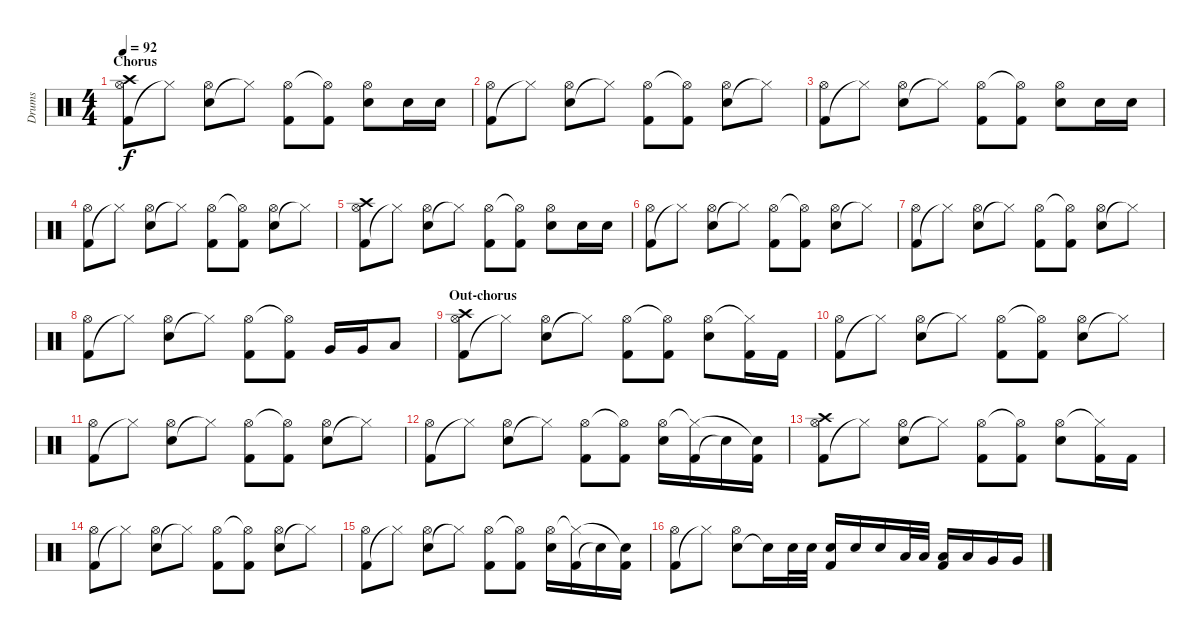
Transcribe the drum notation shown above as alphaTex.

\track ("Drums" "Drums") {instrument percussion}
\staff {score}
\articulation defaults
\ts (4 4)
\section ("" "Chorus")
\tempo 92
\clef neutral
\ks c
("Kick (hit) 2" "Hi-Hat (open)" "Crash high (hit)").8{dy f} "Hi-Hat (closed)"{t}.8 ("Electric Snare (hit)" "Hi-Hat (open)").8 "Hi-Hat (closed)"{t}.8 ("Kick (hit) 2" "Hi-Hat (open)").8 ("Kick (hit) 2" "Hi-Hat (open)"{t}).8 ("Electric Snare (hit)" "Hi-Hat (open)").8 "Electric Snare (hit)".16 "Electric Snare (hit)".16 |
("Kick (hit) 2" "Hi-Hat (open)").8 "Hi-Hat (closed)"{t}.8 ("Electric Snare (hit)" "Hi-Hat (open)").8 "Hi-Hat (closed)"{t}.8 ("Kick (hit) 2" "Hi-Hat (open)").8 ("Kick (hit) 2" "Hi-Hat (open)"{t}).8 ("Electric Snare (hit)" "Hi-Hat (open)").8 "Hi-Hat (closed)"{t}.8 |
("Kick (hit) 2" "Hi-Hat (open)").8 "Hi-Hat (closed)"{t}.8 ("Electric Snare (hit)" "Hi-Hat (open)").8 "Hi-Hat (closed)"{t}.8 ("Kick (hit) 2" "Hi-Hat (open)").8 ("Kick (hit) 2" "Hi-Hat (open)"{t}).8 ("Electric Snare (hit)" "Hi-Hat (open)").8 "Electric Snare (hit)".16 "Electric Snare (hit)".16 |
("Kick (hit) 2" "Hi-Hat (open)").8 "Hi-Hat (closed)"{t}.8 ("Electric Snare (hit)" "Hi-Hat (open)").8 "Hi-Hat (closed)"{t}.8 ("Kick (hit) 2" "Hi-Hat (open)").8 ("Kick (hit) 2" "Hi-Hat (open)"{t}).8 ("Electric Snare (hit)" "Hi-Hat (open)").8 "Hi-Hat (closed)"{t}.8 |
("Kick (hit) 2" "Hi-Hat (open)" "Crash high (hit)").8 "Hi-Hat (closed)"{t}.8 ("Electric Snare (hit)" "Hi-Hat (open)").8 "Hi-Hat (closed)"{t}.8 ("Kick (hit) 2" "Hi-Hat (open)").8 ("Kick (hit) 2" "Hi-Hat (open)"{t}).8 ("Electric Snare (hit)" "Hi-Hat (open)").8 "Electric Snare (hit)".16 "Electric Snare (hit)".16 |
("Kick (hit) 2" "Hi-Hat (open)").8 "Hi-Hat (closed)"{t}.8 ("Electric Snare (hit)" "Hi-Hat (open)").8 "Hi-Hat (closed)"{t}.8 ("Kick (hit) 2" "Hi-Hat (open)").8 ("Kick (hit) 2" "Hi-Hat (open)"{t}).8 ("Electric Snare (hit)" "Hi-Hat (open)").8 "Hi-Hat (closed)"{t}.8 |
("Kick (hit) 2" "Hi-Hat (open)").8 "Hi-Hat (closed)"{t}.8 ("Electric Snare (hit)" "Hi-Hat (open)").8 "Hi-Hat (closed)"{t}.8 ("Kick (hit) 2" "Hi-Hat (open)").8 ("Kick (hit) 2" "Hi-Hat (open)"{t}).8 ("Electric Snare (hit)" "Hi-Hat (open)").8 "Hi-Hat (closed)"{t}.8 |
("Kick (hit) 2" "Hi-Hat (open)").8 "Hi-Hat (closed)"{t}.8 ("Electric Snare (hit)" "Hi-Hat (open)").8 "Hi-Hat (closed)"{t}.8 ("Kick (hit) 2" "Hi-Hat (open)").8 ("Kick (hit) 2" "Hi-Hat (open)"{t}).8 "Very Low Tom (hit)".16 "Very Low Tom (hit)".16 "Low Tom (hit)".8 |
\section ("" "Out-chorus")
("Kick (hit) 2" "Hi-Hat (open)" "Crash high (hit)").8 "Hi-Hat (closed)"{t}.8 ("Electric Snare (hit)" "Hi-Hat (open)").8 "Hi-Hat (closed)"{t}.8 ("Kick (hit) 2" "Hi-Hat (open)").8 ("Kick (hit) 2" "Hi-Hat (open)"{t}).8 ("Electric Snare (hit)" "Hi-Hat (open)").8 ("Kick (hit) 2" "Hi-Hat (closed)"{t}).16 "Kick (hit) 2".16 |
("Kick (hit) 2" "Hi-Hat (open)").8 "Hi-Hat (closed)"{t}.8 ("Electric Snare (hit)" "Hi-Hat (open)").8 "Hi-Hat (closed)"{t}.8 ("Kick (hit) 2" "Hi-Hat (open)").8 ("Kick (hit) 2" "Hi-Hat (open)"{t}).8 ("Electric Snare (hit)" "Hi-Hat (open)").8 "Hi-Hat (closed)"{t}.8 |
("Kick (hit) 2" "Hi-Hat (open)").8 "Hi-Hat (closed)"{t}.8 ("Electric Snare (hit)" "Hi-Hat (open)").8 "Hi-Hat (closed)"{t}.8 ("Kick (hit) 2" "Hi-Hat (open)").8 ("Kick (hit) 2" "Hi-Hat (open)"{t}).8 ("Electric Snare (hit)" "Hi-Hat (open)").8 "Hi-Hat (closed)"{t}.8 |
("Kick (hit) 2" "Hi-Hat (open)").8 "Hi-Hat (closed)"{t}.8 ("Electric Snare (hit)" "Hi-Hat (open)").8 "Hi-Hat (closed)"{t}.8 ("Kick (hit) 2" "Hi-Hat (open)").8 ("Kick (hit) 2" "Hi-Hat (open)"{t}).8 ("Electric Snare (hit)" "Hi-Hat (open)").16 ("Kick (hit) 2" "Hi-Hat (closed)"{t}).16 "Snare (hit)"{t}.16 ("Kick (hit) 2" "Snare (hit)"{t}).16 |
("Kick (hit) 2" "Hi-Hat (open)" "Crash high (hit)").8 "Hi-Hat (closed)"{t}.8 ("Electric Snare (hit)" "Hi-Hat (open)").8 "Hi-Hat (closed)"{t}.8 ("Kick (hit) 2" "Hi-Hat (open)").8 ("Kick (hit) 2" "Hi-Hat (open)"{t}).8 ("Electric Snare (hit)" "Hi-Hat (open)").8 ("Kick (hit) 2" "Hi-Hat (closed)"{t}).16 "Kick (hit) 2".16 |
("Kick (hit) 2" "Hi-Hat (open)").8 "Hi-Hat (closed)"{t}.8 ("Electric Snare (hit)" "Hi-Hat (open)").8 "Hi-Hat (closed)"{t}.8 ("Kick (hit) 2" "Hi-Hat (open)").8 ("Kick (hit) 2" "Hi-Hat (open)"{t}).8 ("Electric Snare (hit)" "Hi-Hat (open)").8 "Hi-Hat (closed)"{t}.8 |
("Kick (hit) 2" "Hi-Hat (open)").8 "Hi-Hat (closed)"{t}.8 ("Electric Snare (hit)" "Hi-Hat (open)").8 "Hi-Hat (closed)"{t}.8 ("Kick (hit) 2" "Hi-Hat (open)").8 ("Kick (hit) 2" "Hi-Hat (open)"{t}).8 ("Electric Snare (hit)" "Hi-Hat (open)").16 ("Kick (hit) 2" "Hi-Hat (closed)"{t}).16 "Snare (hit)"{t}.16 ("Kick (hit) 2" "Snare (hit)"{t}).16 |
("Kick (hit) 2" "Hi-Hat (open)").8 "Hi-Hat (closed)"{t}.8 ("Electric Snare (hit)" "Hi-Hat (open)").8 "Snare (hit)"{t}.16 "Electric Snare (hit)".32 "Electric Snare (hit)".32 ("Kick (hit) 2" "Electric Snare (hit)").16 "Electric Snare (hit)".16 "Electric Snare (hit)".16 "Low Tom (hit)".32 "Low Tom (hit)".32 ("Kick (hit) 2" "Low Tom (hit)").16 "Low Tom (hit)".16 "Very Low Tom (hit)".16 "Very Low Tom (hit)".16
